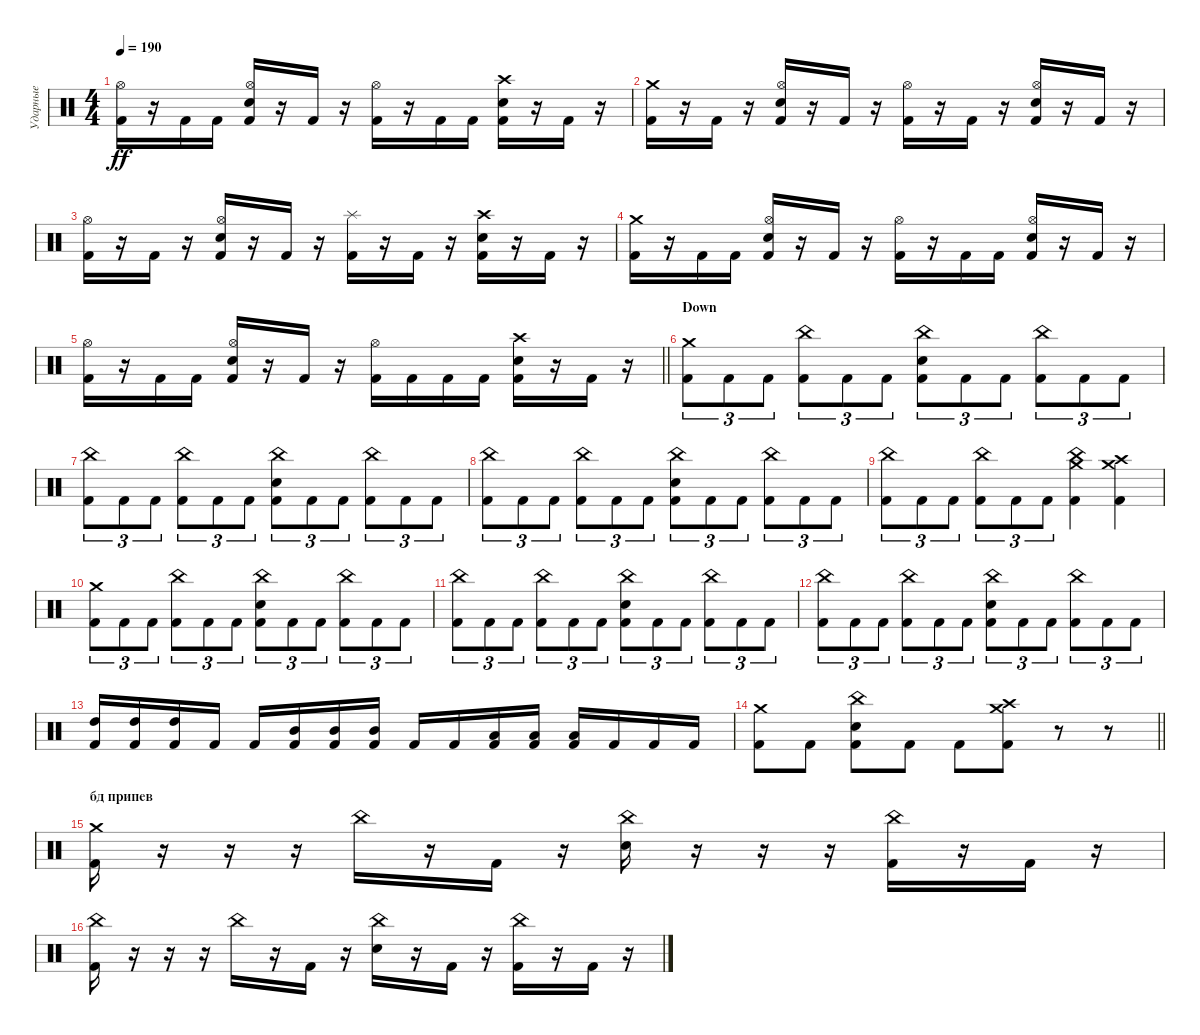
\track ("Ударные" "Ударные") {instrument percussion}
\staff {score}
\articulation defaults
\ts (4 4)
\tempo 190
\clef neutral
\ks c
("Kick (hit) 2" "Hi-Hat (open)").16{dy ff} r.16 "Kick (hit) 2".16 "Kick (hit) 2".16 ("Kick (hit) 2" "Snare (hit) 2" "Hi-Hat (open)").16 r.16 "Kick (hit) 2".16 r.16 ("Kick (hit) 2" "Hi-Hat (open)").16 r.16 "Kick (hit) 2".16 "Kick (hit) 2".16 ("Kick (hit) 2" "Snare (hit) 2" "Crash high (hit)").16 r.16 "Kick (hit) 2".16 r.16 |
("Kick (hit) 2" "Crash medium (hit)").16 r.16 "Kick (hit) 2".16 r.16 ("Kick (hit) 2" "Snare (hit) 2" "Hi-Hat (open)").16 r.16 "Kick (hit) 2".16 r.16 ("Kick (hit) 2" "Hi-Hat (open)").16 r.16 "Kick (hit) 2".16 r.16 ("Kick (hit) 2" "Snare (hit) 2" "Hi-Hat (open)").16 r.16 "Kick (hit) 2".16 r.16 |
("Kick (hit) 2" "Hi-Hat (open)").16 r.16 "Kick (hit) 2".16 r.16 ("Kick (hit) 2" "Snare (hit) 2" "Hi-Hat (open)").16 r.16 "Kick (hit) 2".16 r.16 ("Kick (hit) 2" "Splash (hit)").16 r.16 "Kick (hit) 2".16 r.16 ("Kick (hit) 2" "Snare (hit) 2" "Crash high (hit)").16 r.16 "Kick (hit) 2".16 r.16 |
("Kick (hit) 2" "Crash medium (hit)").16 r.16 "Kick (hit) 2".16 "Kick (hit) 2".16 ("Kick (hit) 2" "Snare (hit) 2" "Hi-Hat (open)").16 r.16 "Kick (hit) 2".16 r.16 ("Kick (hit) 2" "Hi-Hat (open)").16 r.16 "Kick (hit) 2".16 "Kick (hit) 2".16 ("Kick (hit) 2" "Snare (hit) 2" "Hi-Hat (open)").16 r.16 "Kick (hit) 2".16 r.16 |
\barLineRight lightlight
("Kick (hit) 2" "Hi-Hat (open)").16 r.16 "Kick (hit) 2".16 "Kick (hit) 2".16 ("Kick (hit) 2" "Snare (hit) 2" "Hi-Hat (open)").16 r.16 "Kick (hit) 2".16 r.16 ("Kick (hit) 2" "Hi-Hat (open)").16 "Kick (hit) 2".16 "Kick (hit) 2".16 "Kick (hit) 2".16 ("Kick (hit) 2" "Snare (hit) 2" "Crash high (hit)").16 r.16 "Kick (hit) 2".16 r.16 |
\section ("" "Down")
("Kick (hit) 2" "Crash medium (hit)").8{tu (3 2)} "Kick (hit) 2".8{tu (3 2)} "Kick (hit) 2".8{tu (3 2)} ("Kick (hit) 2" "China (hit)").8{tu (3 2)} "Kick (hit) 2".8{tu (3 2)} "Kick (hit) 2".8{tu (3 2)} ("Kick (hit) 2" "Snare (hit) 2" "China (hit)").8{tu (3 2)} "Kick (hit) 2".8{tu (3 2)} "Kick (hit) 2".8{tu (3 2)} ("Kick (hit) 2" "China (hit)").8{tu (3 2)} "Kick (hit) 2".8{tu (3 2)} "Kick (hit) 2".8{tu (3 2)} |
("Kick (hit) 2" "China (hit)").8{tu (3 2)} "Kick (hit) 2".8{tu (3 2)} "Kick (hit) 2".8{tu (3 2)} ("Kick (hit) 2" "China (hit)").8{tu (3 2)} "Kick (hit) 2".8{tu (3 2)} "Kick (hit) 2".8{tu (3 2)} ("Kick (hit) 2" "Snare (hit) 2" "China (hit)").8{tu (3 2)} "Kick (hit) 2".8{tu (3 2)} "Kick (hit) 2".8{tu (3 2)} ("Kick (hit) 2" "China (hit)").8{tu (3 2)} "Kick (hit) 2".8{tu (3 2)} "Kick (hit) 2".8{tu (3 2)} |
("Kick (hit) 2" "China (hit)").8{tu (3 2)} "Kick (hit) 2".8{tu (3 2)} "Kick (hit) 2".8{tu (3 2)} ("Kick (hit) 2" "China (hit)").8{tu (3 2)} "Kick (hit) 2".8{tu (3 2)} "Kick (hit) 2".8{tu (3 2)} ("Kick (hit) 2" "Snare (hit) 2" "China (hit)").8{tu (3 2)} "Kick (hit) 2".8{tu (3 2)} "Kick (hit) 2".8{tu (3 2)} ("Kick (hit) 2" "China (hit)").8{tu (3 2)} "Kick (hit) 2".8{tu (3 2)} "Kick (hit) 2".8{tu (3 2)} |
("Kick (hit) 2" "China (hit)").8{tu (3 2)} "Kick (hit) 2".8{tu (3 2)} "Kick (hit) 2".8{tu (3 2)} ("Kick (hit) 2" "China (hit)").8{tu (3 2)} "Kick (hit) 2".8{tu (3 2)} "Kick (hit) 2".8{tu (3 2)} ("Kick (hit) 2" "Crash medium (hit)" "China (hit)").4 ("Kick (hit) 2" "Crash high (hit)" "Crash medium (hit)").4 |
("Kick (hit) 2" "Crash medium (hit)").8{tu (3 2)} "Kick (hit) 2".8{tu (3 2)} "Kick (hit) 2".8{tu (3 2)} ("Kick (hit) 2" "China (hit)").8{tu (3 2)} "Kick (hit) 2".8{tu (3 2)} "Kick (hit) 2".8{tu (3 2)} ("Kick (hit) 2" "Snare (hit) 2" "China (hit)").8{tu (3 2)} "Kick (hit) 2".8{tu (3 2)} "Kick (hit) 2".8{tu (3 2)} ("Kick (hit) 2" "China (hit)").8{tu (3 2)} "Kick (hit) 2".8{tu (3 2)} "Kick (hit) 2".8{tu (3 2)} |
("Kick (hit) 2" "China (hit)").8{tu (3 2)} "Kick (hit) 2".8{tu (3 2)} "Kick (hit) 2".8{tu (3 2)} ("Kick (hit) 2" "China (hit)").8{tu (3 2)} "Kick (hit) 2".8{tu (3 2)} "Kick (hit) 2".8{tu (3 2)} ("Kick (hit) 2" "Snare (hit) 2" "China (hit)").8{tu (3 2)} "Kick (hit) 2".8{tu (3 2)} "Kick (hit) 2".8{tu (3 2)} ("Kick (hit) 2" "China (hit)").8{tu (3 2)} "Kick (hit) 2".8{tu (3 2)} "Kick (hit) 2".8{tu (3 2)} |
("Kick (hit) 2" "China (hit)").8{tu (3 2)} "Kick (hit) 2".8{tu (3 2)} "Kick (hit) 2".8{tu (3 2)} ("Kick (hit) 2" "China (hit)").8{tu (3 2)} "Kick (hit) 2".8{tu (3 2)} "Kick (hit) 2".8{tu (3 2)} ("Kick (hit) 2" "Snare (hit) 2" "China (hit)").8{tu (3 2)} "Kick (hit) 2".8{tu (3 2)} "Kick (hit) 2".8{tu (3 2)} ("Kick (hit) 2" "China (hit)").8{tu (3 2)} "Kick (hit) 2".8{tu (3 2)} "Kick (hit) 2".8{tu (3 2)} |
("Kick (hit) 2" "High Tom (hit)").16 ("Kick (hit) 2" "High Tom (hit)").16 ("Kick (hit) 2" "High Tom (hit)").16 "Kick (hit) 2".16 "Kick (hit) 2".16 ("Kick (hit) 2" "Mid Tom (hit)").16 ("Kick (hit) 2" "Mid Tom (hit)").16 ("Kick (hit) 2" "Mid Tom (hit)").16 "Kick (hit) 2".16 "Kick (hit) 2".16 ("Kick (hit) 2" "Low Tom (hit)").16 ("Kick (hit) 2" "Low Tom (hit)").16 ("Kick (hit) 2" "Low Tom (hit)").16 "Kick (hit) 2".16 "Kick (hit) 2".16 "Kick (hit) 2".16 |
\barLineRight lightlight
("Kick (hit) 2" "Crash medium (hit)").8 "Kick (hit) 2".8 ("Snare (hit) 2" "China (hit)" "Kick (hit) 2").8 "Kick (hit) 2".8 "Kick (hit) 2".8 ("Crash high (hit)" "Crash medium (hit)" "Kick (hit) 2").8 r.8 r.8 |
\section ("" "бд припев")
("Kick (hit) 2" "Crash medium (hit)").16 r.16 r.16 r.16 "China (hit)".16 r.16 "Kick (hit) 2".16 r.16 ("Snare (hit) 2" "China (hit)").16 r.16 r.16 r.16 ("Kick (hit) 2" "China (hit)").16 r.16 "Kick (hit) 2".16 r.16 |
("Kick (hit) 2" "China (hit)").16 r.16 r.16 r.16 "China (hit)".16 r.16 "Kick (hit) 2".16 r.16 ("Snare (hit) 2" "China (hit)").16 r.16 "Kick (hit) 2".16 r.16 ("Kick (hit) 2" "China (hit)").16 r.16 "Kick (hit) 2".16 r.16
